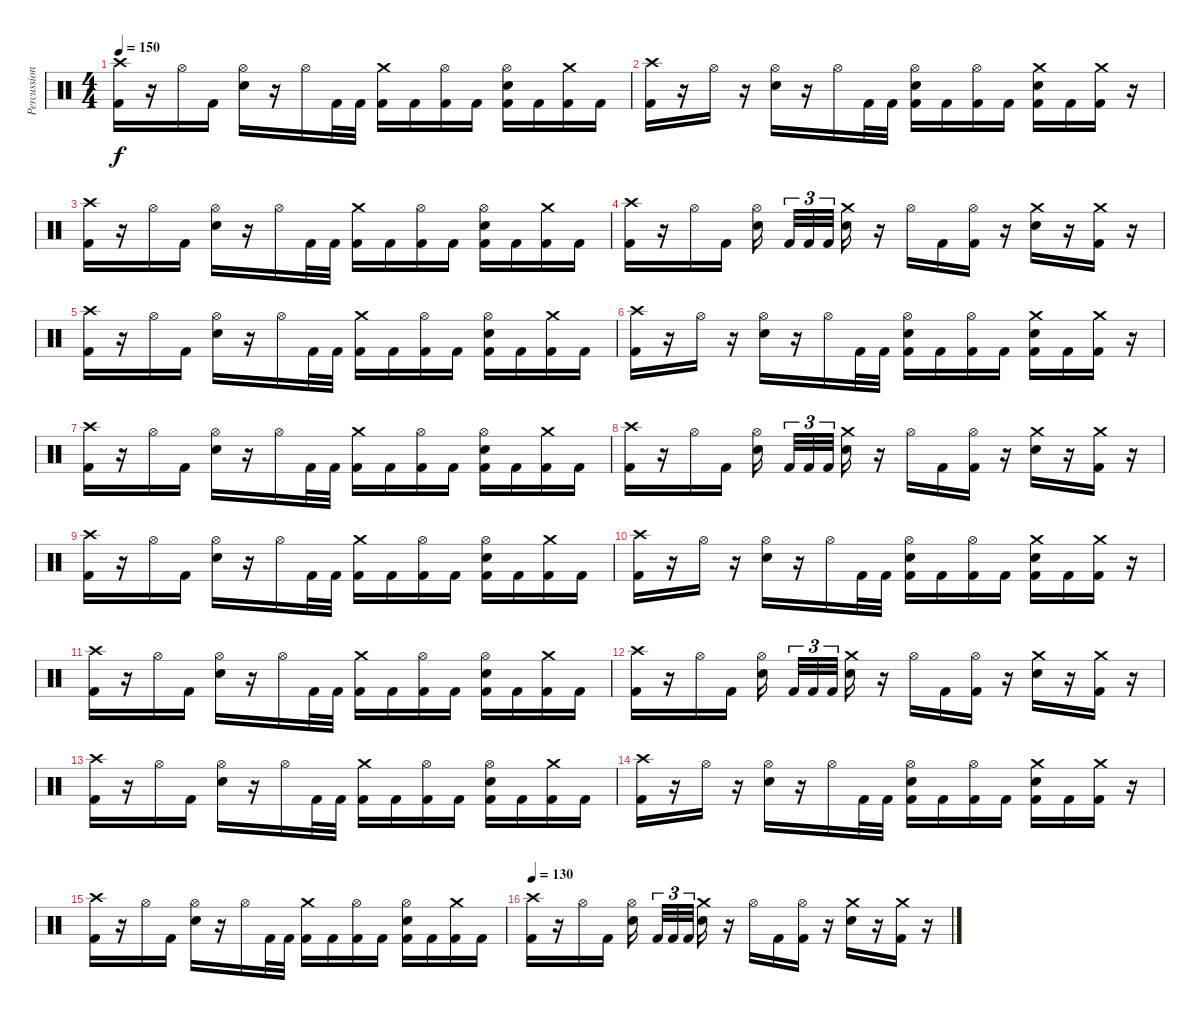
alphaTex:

\track ("Percussions" "Percussion") {instrument percussion}
\staff {score}
\articulation defaults
\ts (4 4)
\tempo 150
\clef neutral
\ks c
("Crash high (hit)" "Kick (hit) 2").16{dy f} r.16 "Hi-Hat (open)".16 "Kick (hit) 2".16 ("Hi-Hat (open)" "Snare (hit) 2").16 r.16 "Hi-Hat (open)".16 "Kick (hit) 2".32 "Kick (hit) 2".32 ("Crash medium (hit)" "Kick (hit) 2").16 "Kick (hit) 2".16 ("Hi-Hat (open)" "Kick (hit) 2").16 "Kick (hit) 2".16 ("Hi-Hat (open)" "Snare (hit) 2" "Kick (hit) 2").16 "Kick (hit) 2".16 ("Crash medium (hit)" "Kick (hit) 2").16 "Kick (hit) 2".16 |
("Crash high (hit)" "Kick (hit) 2").16 r.16 "Hi-Hat (open)".16 r.16 ("Hi-Hat (open)" "Snare (hit) 2").16 r.16 "Hi-Hat (open)".16 "Kick (hit) 2".32 "Kick (hit) 2".32 ("Hi-Hat (open)" "Snare (hit) 2" "Kick (hit) 2").16 "Kick (hit) 2".16 ("Hi-Hat (open)" "Kick (hit) 2").16 "Kick (hit) 2".16 ("Crash medium (hit)" "Snare (hit) 2" "Kick (hit) 2").16 "Kick (hit) 2".16 ("Crash medium (hit)" "Kick (hit) 2").16 r.16 |
("Crash high (hit)" "Kick (hit) 2").16 r.16 "Hi-Hat (open)".16 "Kick (hit) 2".16 ("Hi-Hat (open)" "Snare (hit) 2").16 r.16 "Hi-Hat (open)".16 "Kick (hit) 2".32 "Kick (hit) 2".32 ("Crash medium (hit)" "Kick (hit) 2").16 "Kick (hit) 2".16 ("Hi-Hat (open)" "Kick (hit) 2").16 "Kick (hit) 2".16 ("Hi-Hat (open)" "Snare (hit) 2" "Kick (hit) 2").16 "Kick (hit) 2".16 ("Crash medium (hit)" "Kick (hit) 2").16 "Kick (hit) 2".16 |
("Crash high (hit)" "Kick (hit) 2").16 r.16 "Hi-Hat (open)".16 "Kick (hit) 2".16 ("Hi-Hat (open)" "Snare (hit) 2").16 "Kick (hit) 2".32{tu (3 2)} "Kick (hit) 2".32{tu (3 2)} "Kick (hit) 2".32{tu (3 2)} ("Crash medium (hit)" "Snare (hit) 2").16 r.16 "Hi-Hat (open)".16 "Kick (hit) 2".16 ("Hi-Hat (open)" "Kick (hit) 2").16 r.16 ("Crash medium (hit)" "Snare (hit) 2").16 r.16 ("Crash medium (hit)" "Kick (hit) 2").16 r.16 |
("Crash high (hit)" "Kick (hit) 2").16 r.16 "Hi-Hat (open)".16 "Kick (hit) 2".16 ("Hi-Hat (open)" "Snare (hit) 2").16 r.16 "Hi-Hat (open)".16 "Kick (hit) 2".32 "Kick (hit) 2".32 ("Crash medium (hit)" "Kick (hit) 2").16 "Kick (hit) 2".16 ("Hi-Hat (open)" "Kick (hit) 2").16 "Kick (hit) 2".16 ("Hi-Hat (open)" "Snare (hit) 2" "Kick (hit) 2").16 "Kick (hit) 2".16 ("Crash medium (hit)" "Kick (hit) 2").16 "Kick (hit) 2".16 |
("Crash high (hit)" "Kick (hit) 2").16 r.16 "Hi-Hat (open)".16 r.16 ("Hi-Hat (open)" "Snare (hit) 2").16 r.16 "Hi-Hat (open)".16 "Kick (hit) 2".32 "Kick (hit) 2".32 ("Hi-Hat (open)" "Snare (hit) 2" "Kick (hit) 2").16 "Kick (hit) 2".16 ("Hi-Hat (open)" "Kick (hit) 2").16 "Kick (hit) 2".16 ("Crash medium (hit)" "Snare (hit) 2" "Kick (hit) 2").16 "Kick (hit) 2".16 ("Crash medium (hit)" "Kick (hit) 2").16 r.16 |
("Crash high (hit)" "Kick (hit) 2").16 r.16 "Hi-Hat (open)".16 "Kick (hit) 2".16 ("Hi-Hat (open)" "Snare (hit) 2").16 r.16 "Hi-Hat (open)".16 "Kick (hit) 2".32 "Kick (hit) 2".32 ("Crash medium (hit)" "Kick (hit) 2").16 "Kick (hit) 2".16 ("Hi-Hat (open)" "Kick (hit) 2").16 "Kick (hit) 2".16 ("Hi-Hat (open)" "Snare (hit) 2" "Kick (hit) 2").16 "Kick (hit) 2".16 ("Crash medium (hit)" "Kick (hit) 2").16 "Kick (hit) 2".16 |
("Crash high (hit)" "Kick (hit) 2").16 r.16 "Hi-Hat (open)".16 "Kick (hit) 2".16 ("Hi-Hat (open)" "Snare (hit) 2").16 "Kick (hit) 2".32{tu (3 2)} "Kick (hit) 2".32{tu (3 2)} "Kick (hit) 2".32{tu (3 2)} ("Crash medium (hit)" "Snare (hit) 2").16 r.16 "Hi-Hat (open)".16 "Kick (hit) 2".16 ("Hi-Hat (open)" "Kick (hit) 2").16 r.16 ("Crash medium (hit)" "Snare (hit) 2").16 r.16 ("Crash medium (hit)" "Kick (hit) 2").16 r.16 |
("Crash high (hit)" "Kick (hit) 2").16 r.16 "Hi-Hat (open)".16 "Kick (hit) 2".16 ("Hi-Hat (open)" "Snare (hit) 2").16 r.16 "Hi-Hat (open)".16 "Kick (hit) 2".32 "Kick (hit) 2".32 ("Crash medium (hit)" "Kick (hit) 2").16 "Kick (hit) 2".16 ("Hi-Hat (open)" "Kick (hit) 2").16 "Kick (hit) 2".16 ("Hi-Hat (open)" "Snare (hit) 2" "Kick (hit) 2").16 "Kick (hit) 2".16 ("Crash medium (hit)" "Kick (hit) 2").16 "Kick (hit) 2".16 |
("Crash high (hit)" "Kick (hit) 2").16 r.16 "Hi-Hat (open)".16 r.16 ("Hi-Hat (open)" "Snare (hit) 2").16 r.16 "Hi-Hat (open)".16 "Kick (hit) 2".32 "Kick (hit) 2".32 ("Hi-Hat (open)" "Snare (hit) 2" "Kick (hit) 2").16 "Kick (hit) 2".16 ("Hi-Hat (open)" "Kick (hit) 2").16 "Kick (hit) 2".16 ("Crash medium (hit)" "Snare (hit) 2" "Kick (hit) 2").16 "Kick (hit) 2".16 ("Crash medium (hit)" "Kick (hit) 2").16 r.16 |
("Crash high (hit)" "Kick (hit) 2").16 r.16 "Hi-Hat (open)".16 "Kick (hit) 2".16 ("Hi-Hat (open)" "Snare (hit) 2").16 r.16 "Hi-Hat (open)".16 "Kick (hit) 2".32 "Kick (hit) 2".32 ("Crash medium (hit)" "Kick (hit) 2").16 "Kick (hit) 2".16 ("Hi-Hat (open)" "Kick (hit) 2").16 "Kick (hit) 2".16 ("Hi-Hat (open)" "Snare (hit) 2" "Kick (hit) 2").16 "Kick (hit) 2".16 ("Crash medium (hit)" "Kick (hit) 2").16 "Kick (hit) 2".16 |
("Crash high (hit)" "Kick (hit) 2").16 r.16 "Hi-Hat (open)".16 "Kick (hit) 2".16 ("Hi-Hat (open)" "Snare (hit) 2").16 "Kick (hit) 2".32{tu (3 2)} "Kick (hit) 2".32{tu (3 2)} "Kick (hit) 2".32{tu (3 2)} ("Crash medium (hit)" "Snare (hit) 2").16 r.16 "Hi-Hat (open)".16 "Kick (hit) 2".16 ("Hi-Hat (open)" "Kick (hit) 2").16 r.16 ("Crash medium (hit)" "Snare (hit) 2").16 r.16 ("Crash medium (hit)" "Kick (hit) 2").16 r.16 |
("Crash high (hit)" "Kick (hit) 2").16 r.16 "Hi-Hat (open)".16 "Kick (hit) 2".16 ("Hi-Hat (open)" "Snare (hit) 2").16 r.16 "Hi-Hat (open)".16 "Kick (hit) 2".32 "Kick (hit) 2".32 ("Crash medium (hit)" "Kick (hit) 2").16 "Kick (hit) 2".16 ("Hi-Hat (open)" "Kick (hit) 2").16 "Kick (hit) 2".16 ("Hi-Hat (open)" "Snare (hit) 2" "Kick (hit) 2").16 "Kick (hit) 2".16 ("Crash medium (hit)" "Kick (hit) 2").16 "Kick (hit) 2".16 |
("Crash high (hit)" "Kick (hit) 2").16 r.16 "Hi-Hat (open)".16 r.16 ("Hi-Hat (open)" "Snare (hit) 2").16 r.16 "Hi-Hat (open)".16 "Kick (hit) 2".32 "Kick (hit) 2".32 ("Hi-Hat (open)" "Snare (hit) 2" "Kick (hit) 2").16 "Kick (hit) 2".16 ("Hi-Hat (open)" "Kick (hit) 2").16 "Kick (hit) 2".16 ("Crash medium (hit)" "Snare (hit) 2" "Kick (hit) 2").16 "Kick (hit) 2".16 ("Crash medium (hit)" "Kick (hit) 2").16 r.16 |
("Crash high (hit)" "Kick (hit) 2").16 r.16 "Hi-Hat (open)".16 "Kick (hit) 2".16 ("Hi-Hat (open)" "Snare (hit) 2").16 r.16 "Hi-Hat (open)".16 "Kick (hit) 2".32 "Kick (hit) 2".32 ("Crash medium (hit)" "Kick (hit) 2").16 "Kick (hit) 2".16 ("Hi-Hat (open)" "Kick (hit) 2").16 "Kick (hit) 2".16 ("Hi-Hat (open)" "Snare (hit) 2" "Kick (hit) 2").16 "Kick (hit) 2".16 ("Crash medium (hit)" "Kick (hit) 2").16 "Kick (hit) 2".16 |
\tempo 130
("Crash high (hit)" "Kick (hit) 2").16 r.16 "Hi-Hat (open)".16 "Kick (hit) 2".16 ("Hi-Hat (open)" "Snare (hit) 2").16 "Kick (hit) 2".32{tu (3 2)} "Kick (hit) 2".32{tu (3 2)} "Kick (hit) 2".32{tu (3 2)} ("Crash medium (hit)" "Snare (hit) 2").16 r.16 "Hi-Hat (open)".16 "Kick (hit) 2".16 ("Hi-Hat (open)" "Kick (hit) 2").16 r.16 ("Crash medium (hit)" "Snare (hit) 2").16 r.16 ("Crash medium (hit)" "Kick (hit) 2").16 r.16
